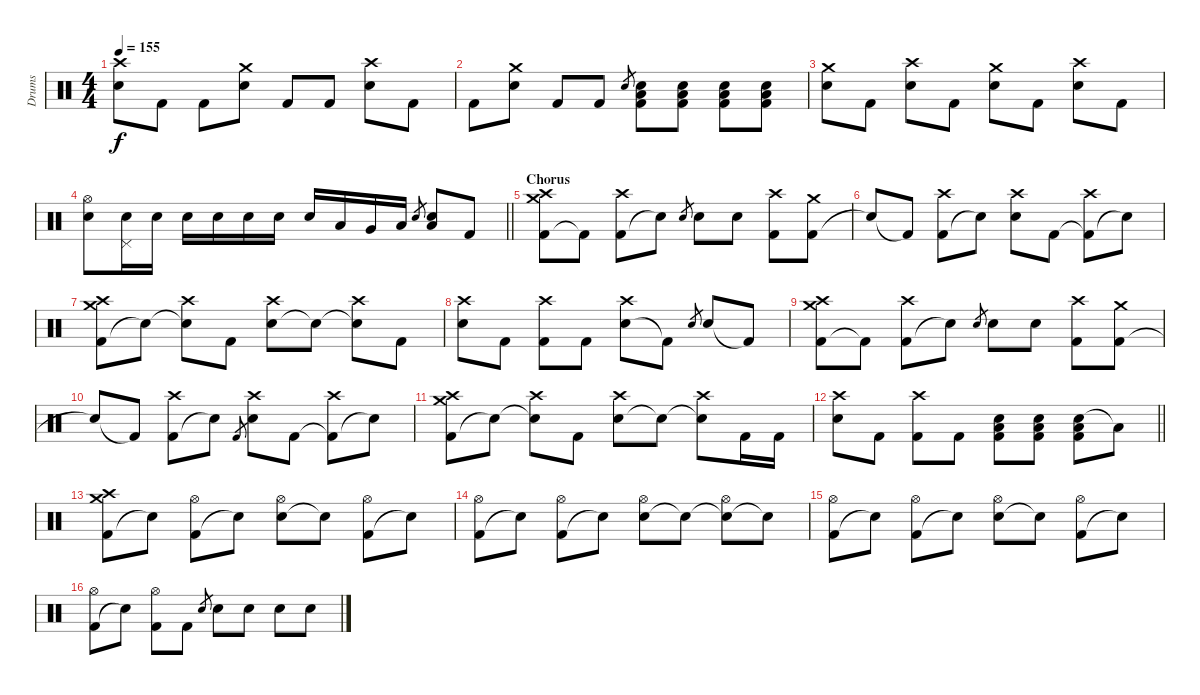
\track ("Drums" "Drums") {instrument percussion}
\staff {score}
\articulation defaults
\ts (4 4)
\tempo 155
\clef neutral
\ks c
("Electric Snare (hit)" "Crash high (hit)").8{dy f} "Kick (hit) 2".8 "Kick (hit) 2".8 ("Electric Snare (hit)" "Crash medium (hit)").8 "Kick (hit) 2".8 "Kick (hit) 2".8 ("Electric Snare (hit)" "Crash high (hit)").8 "Kick (hit) 2".8 |
"Kick (hit) 2".8 ("Electric Snare (hit)" "Crash medium (hit)").8 "Kick (hit) 2".8 "Kick (hit) 2".8 "Electric Snare (hit)".8{gr} ("Electric Snare (hit)" "Low Floor Tom (hit)" "Kick (hit) 2").8 ("Electric Snare (hit)" "Low Floor Tom (hit)" "Kick (hit) 2").8 ("Electric Snare (hit)" "Low Floor Tom (hit)" "Kick (hit) 2").8 ("Electric Snare (hit)" "Low Floor Tom (hit)" "Kick (hit) 2").8 |
("Electric Snare (hit)" "Crash medium (hit)").8 "Kick (hit) 2".8 ("Electric Snare (hit)" "Crash high (hit)").8 "Kick (hit) 2".8 ("Electric Snare (hit)" "Crash medium (hit)").8 "Kick (hit) 2".8 ("Electric Snare (hit)" "Crash high (hit)").8 "Kick (hit) 2".8 |
\barLineRight lightlight
("Electric Snare (hit)" "Hi-Hat (open)").8 ("Electric Snare (hit)" "Pedal Hi-Hat (hit)").16 "Electric Snare (hit)".16 "Electric Snare (hit)".16 "Electric Snare (hit)".16 "Electric Snare (hit)".16 "Electric Snare (hit)".16 "Electric Snare (hit)".16 "Low Tom (hit)".16 "Very Low Tom (hit)".16 "Low Floor Tom (hit)".16 "Electric Snare (hit)".8{gr} ("Electric Snare (hit)" "Low Floor Tom (hit)").8 "Kick (hit) 2".8 |
\section ("" "Chorus")
("Kick (hit) 2" "Crash high (hit)" "Crash medium (hit)").8 "Kick (hit) 2"{t}.8 ("Kick (hit) 2" "Crash high (hit)").8 "Electric Snare (hit)"{t}.8 "Electric Snare (hit)".8{gr} "Electric Snare (hit)".8 "Electric Snare (hit)".8 ("Kick (hit) 2" "Crash high (hit)").8 ("Kick (hit) 2" "Crash medium (hit)").8 |
"Snare (hit)"{t}.8 "Kick (hit) 2"{t}.8 ("Kick (hit) 2" "Crash high (hit)").8 "Snare (hit)"{t}.8 ("Electric Snare (hit)" "Crash high (hit)").8 "Kick (hit) 2".8 ("Kick (hit) 2"{t} "Crash high (hit)").8 "Snare (hit)"{t}.8 |
("Kick (hit) 2" "Crash high (hit)" "Crash medium (hit)").8 "Snare (hit)"{t}.8 ("Snare (hit)"{t} "Crash high (hit)").8 "Kick (hit) 2".8 ("Electric Snare (hit)" "Crash high (hit)").8 "Snare (hit)"{t}.8 ("Snare (hit)"{t} "Crash high (hit)").8 "Kick (hit) 2".8 |
("Electric Snare (hit)" "Crash high (hit)").8 "Kick (hit) 2".8 ("Kick (hit) 2" "Crash high (hit)").8 "Kick (hit) 2".8 ("Electric Snare (hit)" "Crash high (hit)").8 "Kick (hit) 2"{t}.8 "Electric Snare (hit)".8{gr} "Electric Snare (hit)".8 "Kick (hit) 2"{t}.8 |
("Kick (hit) 2" "Crash high (hit)" "Crash medium (hit)").8 "Kick (hit) 2"{t}.8 ("Kick (hit) 2" "Crash high (hit)").8 "Electric Snare (hit)"{t}.8 "Electric Snare (hit)".8{gr} "Electric Snare (hit)".8 "Electric Snare (hit)".8 ("Kick (hit) 2" "Crash high (hit)").8 ("Kick (hit) 2" "Crash medium (hit)").8 |
"Snare (hit)"{t}.8 "Kick (hit) 2"{t}.8 ("Kick (hit) 2" "Crash high (hit)").8 "Snare (hit)"{t}.8 "Kick (hit) 2".8{gr} ("Electric Snare (hit)" "Crash high (hit)").8 "Kick (hit) 2".8 ("Kick (hit) 2"{t} "Crash high (hit)").8 "Snare (hit)"{t}.8 |
("Kick (hit) 2" "Crash high (hit)" "Crash medium (hit)").8 "Snare (hit)"{t}.8 ("Snare (hit)"{t} "Crash high (hit)").8 "Kick (hit) 2".8 ("Electric Snare (hit)" "Crash high (hit)").8 "Snare (hit)"{t}.8 ("Snare (hit)"{t} "Crash high (hit)").8 "Kick (hit) 2".16 "Kick (hit) 2".16 |
\barLineRight lightlight
("Electric Snare (hit)" "Crash high (hit)").8 "Kick (hit) 2".8 ("Kick (hit) 2" "Crash high (hit)").8 "Kick (hit) 2".8 ("Electric Snare (hit)" "Low Floor Tom (hit)" "Kick (hit) 2").8 ("Electric Snare (hit)" "Low Floor Tom (hit)" "Kick (hit) 2").8 ("Electric Snare (hit)" "Low Floor Tom (hit)" "Kick (hit) 2").8 "Low Floor Tom (hit)"{t}.8 |
("Kick (hit) 2" "Crash medium (hit)" "Crash high (hit)").8 "Snare (hit)"{t}.8 ("Kick (hit) 2" "Hi-Hat (open)").8 "Snare (hit)"{t}.8 ("Electric Snare (hit)" "Hi-Hat (open)").8 "Snare (hit)"{t}.8 ("Kick (hit) 2" "Hi-Hat (open)").8 "Snare (hit)"{t}.8 |
("Kick (hit) 2" "Hi-Hat (open)").8 "Snare (hit)"{t}.8 ("Kick (hit) 2" "Hi-Hat (open)").8 "Snare (hit)"{t}.8 ("Electric Snare (hit)" "Hi-Hat (open)").8 "Snare (hit)"{t}.8 ("Snare (hit)"{t} "Hi-Hat (open)").8 "Snare (hit)"{t}.8 |
("Kick (hit) 2" "Hi-Hat (open)").8 "Snare (hit)"{t}.8 ("Kick (hit) 2" "Hi-Hat (open)").8 "Snare (hit)"{t}.8 ("Electric Snare (hit)" "Hi-Hat (open)").8 "Snare (hit)"{t}.8 ("Kick (hit) 2" "Hi-Hat (open)").8 "Snare (hit)"{t}.8 |
("Kick (hit) 2" "Hi-Hat (open)").8 "Snare (hit)"{t}.8 ("Kick (hit) 2" "Hi-Hat (open)").8 "Kick (hit) 2".8 "Electric Snare (hit)".8{gr} "Electric Snare (hit)".8 "Electric Snare (hit)".8 "Electric Snare (hit)".8 "Electric Snare (hit)".8
